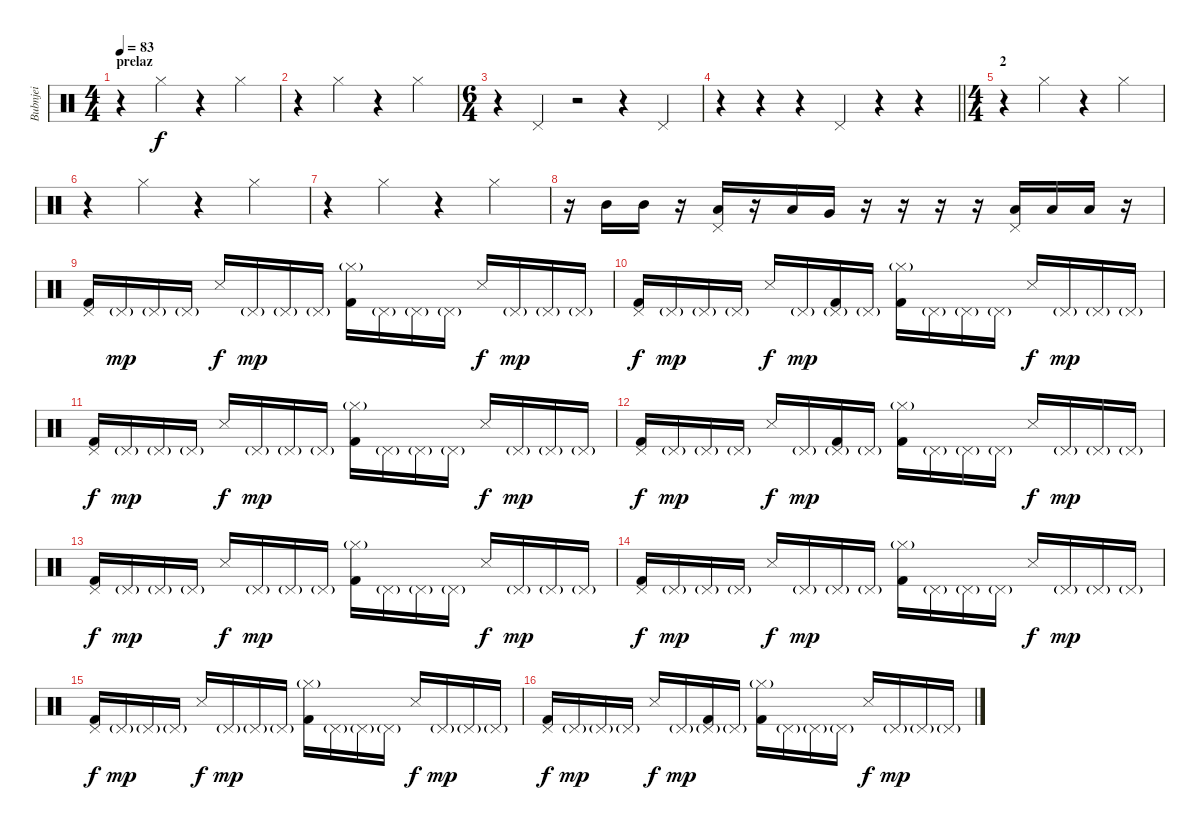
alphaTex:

\track ("Bubnjei" "Bubnjei") {instrument percussion}
\staff {score}
\articulation defaults
\ts (4 4)
\section ("" "prelaz")
\tempo 83
\clef neutral
\ks c
r.4{dy f} "Hi-Hat (closed)".4 r.4 "Hi-Hat (closed)".4 |
r.4 "Hi-Hat (closed)".4 r.4 "Hi-Hat (closed)".4 |
\ts (6 4)
r.4 "Pedal Hi-Hat (hit)".4 r.2 r.4 "Pedal Hi-Hat (hit)".4 |
\barLineRight lightlight
r.4 r.4 r.4 "Pedal Hi-Hat (hit)".4 r.4 r.4 |
\ts (4 4)
\section ("" "2")
r.4 "Hi-Hat (closed)".4 r.4 "Hi-Hat (closed)".4 |
r.4 "Hi-Hat (closed)".4 r.4 "Hi-Hat (closed)".4 |
r.4 "Hi-Hat (closed)".4 r.4 "Hi-Hat (closed)".4 |
r.16 "Mid Tom (hit)".16 "Mid Tom (hit)".16 r.16 ("Pedal Hi-Hat (hit)" "Low Tom (hit)").16 r.16 "Low Tom (hit)".16 "Very Low Tom (hit)".16 r.16 r.16 r.16 r.16 ("Pedal Hi-Hat (hit)" "Low Floor Tom (hit)").16 "Low Floor Tom (hit)".16 "Low Floor Tom (hit)".16 r.16 |
("Pedal Hi-Hat (hit)" "Kick (hit) 2").16 "Pedal Hi-Hat (hit)"{g}.16{dy mp} "Pedal Hi-Hat (hit)"{g}.16 "Pedal Hi-Hat (hit)"{g}.16 "Snare (side stick) 3".16{dy f} "Pedal Hi-Hat (hit)"{g}.16{dy mp} "Pedal Hi-Hat (hit)"{g}.16 "Pedal Hi-Hat (hit)"{g}.16 ("Hi-Hat (closed)"{g} "Kick (hit) 2").16 "Pedal Hi-Hat (hit)"{g}.16 "Pedal Hi-Hat (hit)"{g}.16 "Pedal Hi-Hat (hit)"{g}.16 "Snare (side stick) 3".16{dy f} "Pedal Hi-Hat (hit)"{g}.16{dy mp} "Pedal Hi-Hat (hit)"{g}.16 "Pedal Hi-Hat (hit)"{g}.16 |
("Pedal Hi-Hat (hit)" "Kick (hit) 2").16{dy f} "Pedal Hi-Hat (hit)"{g}.16{dy mp} "Pedal Hi-Hat (hit)"{g}.16 "Pedal Hi-Hat (hit)"{g}.16 "Snare (side stick) 3".16{dy f} "Pedal Hi-Hat (hit)"{g}.16{dy mp} ("Pedal Hi-Hat (hit)"{g} "Kick (hit) 2").16 "Pedal Hi-Hat (hit)"{g}.16 ("Hi-Hat (closed)"{g} "Kick (hit) 2").16 "Pedal Hi-Hat (hit)"{g}.16 "Pedal Hi-Hat (hit)"{g}.16 "Pedal Hi-Hat (hit)"{g}.16 "Snare (side stick) 3".16{dy f} "Pedal Hi-Hat (hit)"{g}.16{dy mp} "Pedal Hi-Hat (hit)"{g}.16 "Pedal Hi-Hat (hit)"{g}.16 |
("Pedal Hi-Hat (hit)" "Kick (hit) 2").16{dy f} "Pedal Hi-Hat (hit)"{g}.16{dy mp} "Pedal Hi-Hat (hit)"{g}.16 "Pedal Hi-Hat (hit)"{g}.16 "Snare (side stick) 3".16{dy f} "Pedal Hi-Hat (hit)"{g}.16{dy mp} "Pedal Hi-Hat (hit)"{g}.16 "Pedal Hi-Hat (hit)"{g}.16 ("Hi-Hat (closed)"{g} "Kick (hit) 2").16 "Pedal Hi-Hat (hit)"{g}.16 "Pedal Hi-Hat (hit)"{g}.16 "Pedal Hi-Hat (hit)"{g}.16 "Snare (side stick) 3".16{dy f} "Pedal Hi-Hat (hit)"{g}.16{dy mp} "Pedal Hi-Hat (hit)"{g}.16 "Pedal Hi-Hat (hit)"{g}.16 |
("Pedal Hi-Hat (hit)" "Kick (hit) 2").16{dy f} "Pedal Hi-Hat (hit)"{g}.16{dy mp} "Pedal Hi-Hat (hit)"{g}.16 "Pedal Hi-Hat (hit)"{g}.16 "Snare (side stick) 3".16{dy f} "Pedal Hi-Hat (hit)"{g}.16{dy mp} ("Pedal Hi-Hat (hit)"{g} "Kick (hit) 2").16 "Pedal Hi-Hat (hit)"{g}.16 ("Hi-Hat (closed)"{g} "Kick (hit) 2").16 "Pedal Hi-Hat (hit)"{g}.16 "Pedal Hi-Hat (hit)"{g}.16 "Pedal Hi-Hat (hit)"{g}.16 "Snare (side stick) 3".16{dy f} "Pedal Hi-Hat (hit)"{g}.16{dy mp} "Pedal Hi-Hat (hit)"{g}.16 "Pedal Hi-Hat (hit)"{g}.16 |
("Pedal Hi-Hat (hit)" "Kick (hit) 2").16{dy f} "Pedal Hi-Hat (hit)"{g}.16{dy mp} "Pedal Hi-Hat (hit)"{g}.16 "Pedal Hi-Hat (hit)"{g}.16 "Snare (side stick) 3".16{dy f} "Pedal Hi-Hat (hit)"{g}.16{dy mp} "Pedal Hi-Hat (hit)"{g}.16 "Pedal Hi-Hat (hit)"{g}.16 ("Hi-Hat (closed)"{g} "Kick (hit) 2").16 "Pedal Hi-Hat (hit)"{g}.16 "Pedal Hi-Hat (hit)"{g}.16 "Pedal Hi-Hat (hit)"{g}.16 "Snare (side stick) 3".16{dy f} "Pedal Hi-Hat (hit)"{g}.16{dy mp} "Pedal Hi-Hat (hit)"{g}.16 "Pedal Hi-Hat (hit)"{g}.16 |
("Pedal Hi-Hat (hit)" "Kick (hit) 2").16{dy f} "Pedal Hi-Hat (hit)"{g}.16{dy mp} "Pedal Hi-Hat (hit)"{g}.16 "Pedal Hi-Hat (hit)"{g}.16 "Snare (side stick) 3".16{dy f} "Pedal Hi-Hat (hit)"{g}.16{dy mp} "Pedal Hi-Hat (hit)"{g}.16 "Pedal Hi-Hat (hit)"{g}.16 ("Hi-Hat (closed)"{g} "Kick (hit) 2").16 "Pedal Hi-Hat (hit)"{g}.16 "Pedal Hi-Hat (hit)"{g}.16 "Pedal Hi-Hat (hit)"{g}.16 "Snare (side stick) 3".16{dy f} "Pedal Hi-Hat (hit)"{g}.16{dy mp} "Pedal Hi-Hat (hit)"{g}.16 "Pedal Hi-Hat (hit)"{g}.16 |
("Pedal Hi-Hat (hit)" "Kick (hit) 2").16{dy f} "Pedal Hi-Hat (hit)"{g}.16{dy mp} "Pedal Hi-Hat (hit)"{g}.16 "Pedal Hi-Hat (hit)"{g}.16 "Snare (side stick) 3".16{dy f} "Pedal Hi-Hat (hit)"{g}.16{dy mp} "Pedal Hi-Hat (hit)"{g}.16 "Pedal Hi-Hat (hit)"{g}.16 ("Hi-Hat (closed)"{g} "Kick (hit) 2").16 "Pedal Hi-Hat (hit)"{g}.16 "Pedal Hi-Hat (hit)"{g}.16 "Pedal Hi-Hat (hit)"{g}.16 "Snare (side stick) 3".16{dy f} "Pedal Hi-Hat (hit)"{g}.16{dy mp} "Pedal Hi-Hat (hit)"{g}.16 "Pedal Hi-Hat (hit)"{g}.16 |
("Pedal Hi-Hat (hit)" "Kick (hit) 2").16{dy f} "Pedal Hi-Hat (hit)"{g}.16{dy mp} "Pedal Hi-Hat (hit)"{g}.16 "Pedal Hi-Hat (hit)"{g}.16 "Snare (side stick) 3".16{dy f} "Pedal Hi-Hat (hit)"{g}.16{dy mp} ("Pedal Hi-Hat (hit)"{g} "Kick (hit) 2").16 "Pedal Hi-Hat (hit)"{g}.16 ("Hi-Hat (closed)"{g} "Kick (hit) 2").16 "Pedal Hi-Hat (hit)"{g}.16 "Pedal Hi-Hat (hit)"{g}.16 "Pedal Hi-Hat (hit)"{g}.16 "Snare (side stick) 3".16{dy f} "Pedal Hi-Hat (hit)"{g}.16{dy mp} "Pedal Hi-Hat (hit)"{g}.16 "Pedal Hi-Hat (hit)"{g}.16
